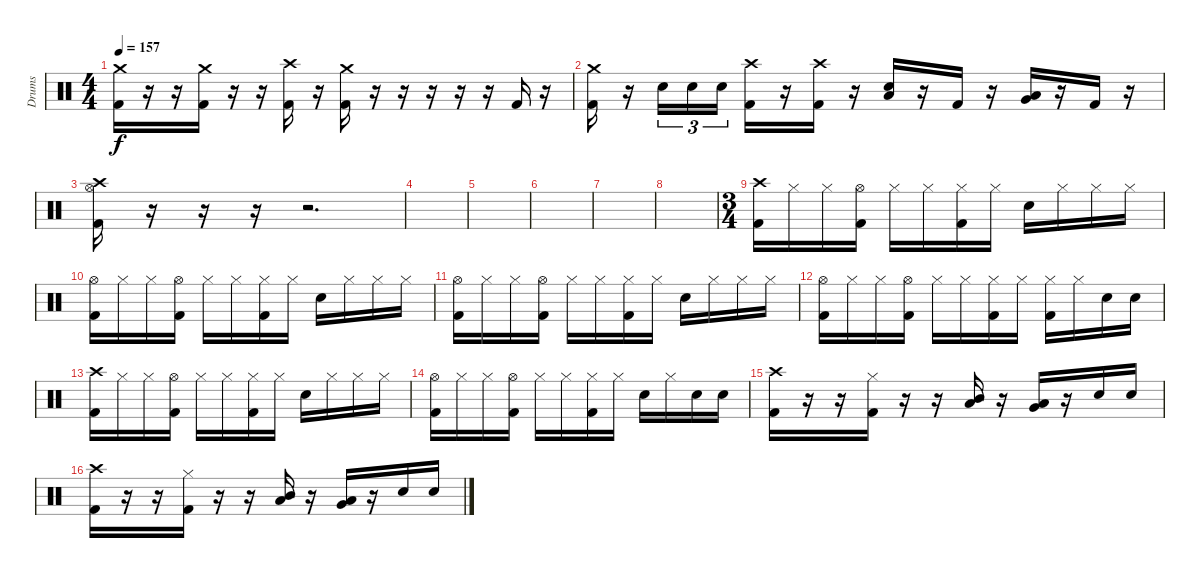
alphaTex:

\track ("Drums" "Drums") {instrument percussion}
\staff {score}
\articulation defaults
\ts (4 4)
\tempo 157
\clef neutral
\ks c
("Crash medium (hit)" "Kick (hit) 2").16{dy f} r.16 r.16 ("Crash medium (hit)" "Kick (hit) 2").16 r.16 r.16 ("Crash high (hit)" "Kick (hit) 2").16 r.16 ("Crash medium (hit)" "Kick (hit) 2").16 r.16 r.16 r.16 r.16 r.16 "Kick (hit) 2".16 r.16 |
("Crash medium (hit)" "Kick (hit) 2").16 r.16 "Snare (hit) 2".16{tu (3 2)} "Snare (hit) 2".16{tu (3 2)} "Snare (hit) 2".16{tu (3 2)} ("Crash high (hit)" "Kick (hit) 2").16 r.16 ("Crash high (hit)" "Kick (hit) 2").16 r.16 ("Low Tom (hit)" "Snare (hit) 2").16 r.16 "Kick (hit) 2".16 r.16 ("Very Low Tom (hit)" "Low Tom (hit)").16 r.16 "Kick (hit) 2".16 r.16 |
("Crash high (hit)" "Hi-Hat (open)" "Kick (hit) 2").16 r.16 r.16 r.16 r.2{d} |
|
|
|
|
|
\ts (3 4)
("Crash high (hit)" "Kick (hit) 2").16 "Hi-Hat (closed)".16 "Hi-Hat (closed)".16 ("Hi-Hat (open)" "Kick (hit) 2").16 "Hi-Hat (closed)".16 "Hi-Hat (closed)".16 ("Hi-Hat (closed)" "Kick (hit) 2").16 "Hi-Hat (closed)".16 "Snare (hit) 2".16 "Hi-Hat (closed)".16 "Hi-Hat (closed)".16 "Hi-Hat (closed)".16 |
("Hi-Hat (open)" "Kick (hit) 2").16 "Hi-Hat (closed)".16 "Hi-Hat (closed)".16 ("Hi-Hat (open)" "Kick (hit) 2").16 "Hi-Hat (closed)".16 "Hi-Hat (closed)".16 ("Hi-Hat (closed)" "Kick (hit) 2").16 "Hi-Hat (closed)".16 "Snare (hit) 2".16 "Hi-Hat (closed)".16 "Hi-Hat (closed)".16 "Hi-Hat (closed)".16 |
("Hi-Hat (open)" "Kick (hit) 2").16 "Hi-Hat (closed)".16 "Hi-Hat (closed)".16 ("Hi-Hat (open)" "Kick (hit) 2").16 "Hi-Hat (closed)".16 "Hi-Hat (closed)".16 ("Hi-Hat (closed)" "Kick (hit) 2").16 "Hi-Hat (closed)".16 "Snare (hit) 2".16 "Hi-Hat (closed)".16 "Hi-Hat (closed)".16 "Hi-Hat (closed)".16 |
("Hi-Hat (open)" "Kick (hit) 2").16 "Hi-Hat (closed)".16 "Hi-Hat (closed)".16 ("Hi-Hat (open)" "Kick (hit) 2").16 "Hi-Hat (closed)".16 "Hi-Hat (closed)".16 ("Hi-Hat (closed)" "Kick (hit) 2").16 "Hi-Hat (closed)".16 ("Hi-Hat (closed)" "Kick (hit) 2").16 "Hi-Hat (closed)".16 "Snare (hit) 2".16 "Snare (hit) 2".16 |
("Crash high (hit)" "Kick (hit) 2").16 "Hi-Hat (closed)".16 "Hi-Hat (closed)".16 ("Hi-Hat (open)" "Kick (hit) 2").16 "Hi-Hat (closed)".16 "Hi-Hat (closed)".16 ("Hi-Hat (closed)" "Kick (hit) 2").16 "Hi-Hat (closed)".16 "Snare (hit) 2".16 "Hi-Hat (closed)".16 "Hi-Hat (closed)".16 "Hi-Hat (closed)".16 |
("Hi-Hat (open)" "Kick (hit) 2").16 "Hi-Hat (closed)".16 "Hi-Hat (closed)".16 ("Hi-Hat (open)" "Kick (hit) 2").16 "Hi-Hat (closed)".16 "Hi-Hat (closed)".16 ("Hi-Hat (closed)" "Kick (hit) 2").16 "Hi-Hat (closed)".16 "Snare (hit) 2".16 "Hi-Hat (closed)".16 "Snare (hit) 2".16 "Snare (hit) 2".16 |
("Crash high (hit)" "Kick (hit) 2").16 r.16 r.16 ("Hi-Hat (closed)" "Kick (hit) 2").16 r.16 r.16 ("Low Tom (hit)" "Mid Tom (hit)").16 r.16 ("Low Tom (hit)" "Very Low Tom (hit)").16 r.16 "Snare (hit) 2".16 "Snare (hit) 2".16 |
("Crash high (hit)" "Kick (hit) 2").16 r.16 r.16 ("Hi-Hat (closed)" "Kick (hit) 2").16 r.16 r.16 ("Low Tom (hit)" "Mid Tom (hit)").16 r.16 ("Low Tom (hit)" "Very Low Tom (hit)").16 r.16 "Snare (hit) 2".16 "Snare (hit) 2".16
